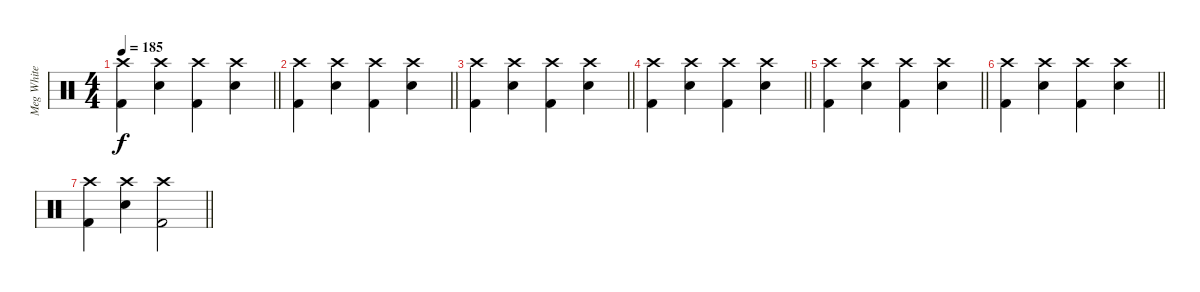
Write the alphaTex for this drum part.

\track ("Meg White (Drums)" "Meg White ") {instrument percussion}
\staff {score}
\articulation defaults
\ts (4 4)
\tempo 185
\clef neutral
\barLineRight lightlight
\ks c
("Kick (hit) 2" "Crash high (hit)").4{dy f} ("Electric Snare (hit)" "Crash high (hit)").4 ("Kick (hit) 2" "Crash high (hit)").4 ("Electric Snare (hit)" "Crash high (hit)").4 |
\barLineRight lightlight
("Kick (hit) 2" "Crash high (hit)").4 ("Electric Snare (hit)" "Crash high (hit)").4 ("Kick (hit) 2" "Crash high (hit)").4 ("Electric Snare (hit)" "Crash high (hit)").4 |
\barLineRight lightlight
("Kick (hit) 2" "Crash high (hit)").4 ("Electric Snare (hit)" "Crash high (hit)").4 ("Kick (hit) 2" "Crash high (hit)").4 ("Electric Snare (hit)" "Crash high (hit)").4 |
\barLineRight lightlight
("Kick (hit) 2" "Crash high (hit)").4 ("Electric Snare (hit)" "Crash high (hit)").4 ("Kick (hit) 2" "Crash high (hit)").4 ("Electric Snare (hit)" "Crash high (hit)").4 |
\barLineRight lightlight
("Kick (hit) 2" "Crash high (hit)").4 ("Electric Snare (hit)" "Crash high (hit)").4 ("Kick (hit) 2" "Crash high (hit)").4 ("Electric Snare (hit)" "Crash high (hit)").4 |
\barLineRight lightlight
("Kick (hit) 2" "Crash high (hit)").4 ("Electric Snare (hit)" "Crash high (hit)").4 ("Kick (hit) 2" "Crash high (hit)").4 ("Electric Snare (hit)" "Crash high (hit)").4 |
\barLineRight lightlight
("Kick (hit) 2" "Crash high (hit)").4 ("Electric Snare (hit)" "Crash high (hit)").4 ("Kick (hit) 2" "Crash high (hit)").2
